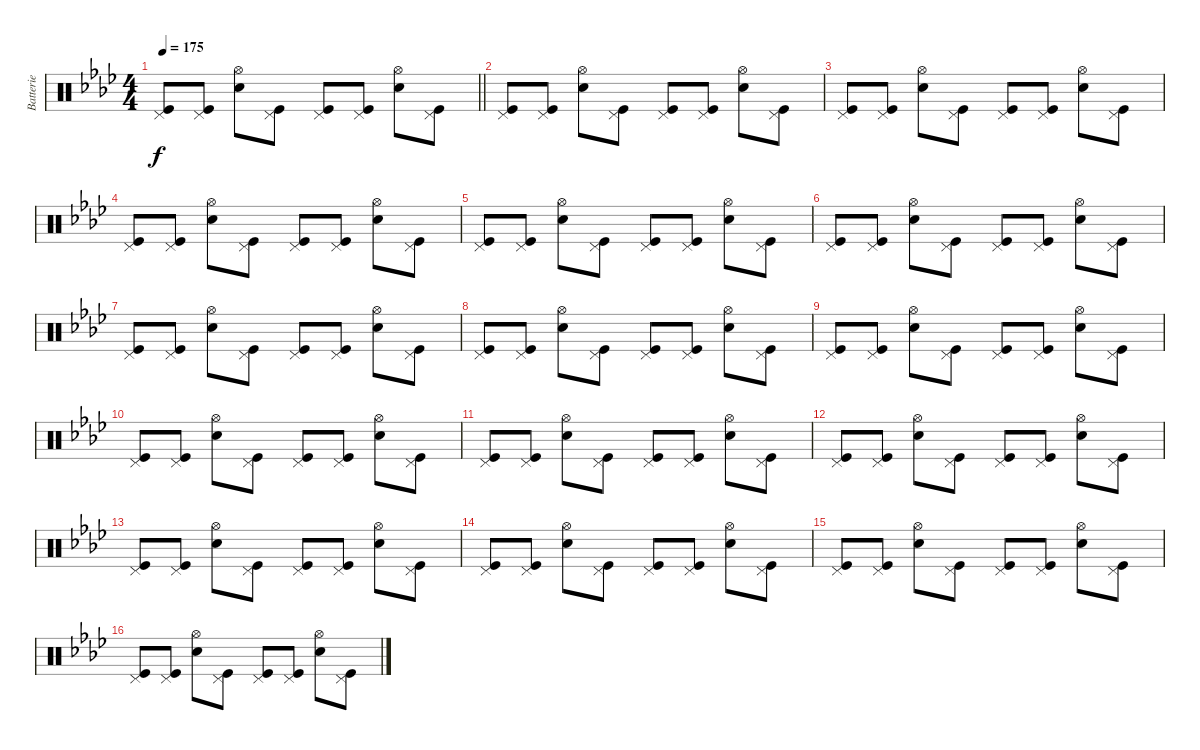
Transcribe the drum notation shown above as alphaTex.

\track ("Batterie" "Batterie") {instrument percussion}
\staff {score}
\articulation defaults
\ts (4 4)
\tempo 175
\clef neutral
\barLineRight lightlight
\ks ab
("Kick (hit)" "Pedal Hi-Hat (hit)").8{dy f} ("Kick (hit)" "Pedal Hi-Hat (hit)").8 ("Snare (hit) 2" "Hi-Hat (open)").8 ("Kick (hit)" "Pedal Hi-Hat (hit)").8 ("Kick (hit)" "Pedal Hi-Hat (hit)").8 ("Kick (hit)" "Pedal Hi-Hat (hit)").8 ("Snare (hit) 2" "Hi-Hat (open)").8 ("Kick (hit)" "Pedal Hi-Hat (hit)").8 |
("Kick (hit)" "Pedal Hi-Hat (hit)").8 ("Kick (hit)" "Pedal Hi-Hat (hit)").8 ("Snare (hit) 2" "Hi-Hat (open)").8 ("Kick (hit)" "Pedal Hi-Hat (hit)").8 ("Kick (hit)" "Pedal Hi-Hat (hit)").8 ("Kick (hit)" "Pedal Hi-Hat (hit)").8 ("Snare (hit) 2" "Hi-Hat (open)").8 ("Kick (hit)" "Pedal Hi-Hat (hit)").8 |
("Kick (hit)" "Pedal Hi-Hat (hit)").8 ("Kick (hit)" "Pedal Hi-Hat (hit)").8 ("Snare (hit) 2" "Hi-Hat (open)").8 ("Kick (hit)" "Pedal Hi-Hat (hit)").8 ("Kick (hit)" "Pedal Hi-Hat (hit)").8 ("Kick (hit)" "Pedal Hi-Hat (hit)").8 ("Snare (hit) 2" "Hi-Hat (open)").8 ("Kick (hit)" "Pedal Hi-Hat (hit)").8 |
("Kick (hit)" "Pedal Hi-Hat (hit)").8 ("Kick (hit)" "Pedal Hi-Hat (hit)").8 ("Snare (hit) 2" "Hi-Hat (open)").8 ("Kick (hit)" "Pedal Hi-Hat (hit)").8 ("Kick (hit)" "Pedal Hi-Hat (hit)").8 ("Kick (hit)" "Pedal Hi-Hat (hit)").8 ("Snare (hit) 2" "Hi-Hat (open)").8 ("Kick (hit)" "Pedal Hi-Hat (hit)").8 |
("Kick (hit)" "Pedal Hi-Hat (hit)").8 ("Kick (hit)" "Pedal Hi-Hat (hit)").8 ("Snare (hit) 2" "Hi-Hat (open)").8 ("Kick (hit)" "Pedal Hi-Hat (hit)").8 ("Kick (hit)" "Pedal Hi-Hat (hit)").8 ("Kick (hit)" "Pedal Hi-Hat (hit)").8 ("Snare (hit) 2" "Hi-Hat (open)").8 ("Kick (hit)" "Pedal Hi-Hat (hit)").8 |
("Kick (hit)" "Pedal Hi-Hat (hit)").8 ("Kick (hit)" "Pedal Hi-Hat (hit)").8 ("Snare (hit) 2" "Hi-Hat (open)").8 ("Kick (hit)" "Pedal Hi-Hat (hit)").8 ("Kick (hit)" "Pedal Hi-Hat (hit)").8 ("Kick (hit)" "Pedal Hi-Hat (hit)").8 ("Snare (hit) 2" "Hi-Hat (open)").8 ("Kick (hit)" "Pedal Hi-Hat (hit)").8 |
("Kick (hit)" "Pedal Hi-Hat (hit)").8 ("Kick (hit)" "Pedal Hi-Hat (hit)").8 ("Snare (hit) 2" "Hi-Hat (open)").8 ("Kick (hit)" "Pedal Hi-Hat (hit)").8 ("Kick (hit)" "Pedal Hi-Hat (hit)").8 ("Kick (hit)" "Pedal Hi-Hat (hit)").8 ("Snare (hit) 2" "Hi-Hat (open)").8 ("Kick (hit)" "Pedal Hi-Hat (hit)").8 |
("Kick (hit)" "Pedal Hi-Hat (hit)").8 ("Kick (hit)" "Pedal Hi-Hat (hit)").8 ("Snare (hit) 2" "Hi-Hat (open)").8 ("Kick (hit)" "Pedal Hi-Hat (hit)").8 ("Kick (hit)" "Pedal Hi-Hat (hit)").8 ("Kick (hit)" "Pedal Hi-Hat (hit)").8 ("Snare (hit) 2" "Hi-Hat (open)").8 ("Kick (hit)" "Pedal Hi-Hat (hit)").8 |
("Kick (hit)" "Pedal Hi-Hat (hit)").8 ("Kick (hit)" "Pedal Hi-Hat (hit)").8 ("Snare (hit) 2" "Hi-Hat (open)").8 ("Kick (hit)" "Pedal Hi-Hat (hit)").8 ("Kick (hit)" "Pedal Hi-Hat (hit)").8 ("Kick (hit)" "Pedal Hi-Hat (hit)").8 ("Snare (hit) 2" "Hi-Hat (open)").8 ("Kick (hit)" "Pedal Hi-Hat (hit)").8 |
("Kick (hit)" "Pedal Hi-Hat (hit)").8 ("Kick (hit)" "Pedal Hi-Hat (hit)").8 ("Snare (hit) 2" "Hi-Hat (open)").8 ("Kick (hit)" "Pedal Hi-Hat (hit)").8 ("Kick (hit)" "Pedal Hi-Hat (hit)").8 ("Kick (hit)" "Pedal Hi-Hat (hit)").8 ("Snare (hit) 2" "Hi-Hat (open)").8 ("Kick (hit)" "Pedal Hi-Hat (hit)").8 |
("Kick (hit)" "Pedal Hi-Hat (hit)").8 ("Kick (hit)" "Pedal Hi-Hat (hit)").8 ("Snare (hit) 2" "Hi-Hat (open)").8 ("Kick (hit)" "Pedal Hi-Hat (hit)").8 ("Kick (hit)" "Pedal Hi-Hat (hit)").8 ("Kick (hit)" "Pedal Hi-Hat (hit)").8 ("Snare (hit) 2" "Hi-Hat (open)").8 ("Kick (hit)" "Pedal Hi-Hat (hit)").8 |
("Kick (hit)" "Pedal Hi-Hat (hit)").8 ("Kick (hit)" "Pedal Hi-Hat (hit)").8 ("Snare (hit) 2" "Hi-Hat (open)").8 ("Kick (hit)" "Pedal Hi-Hat (hit)").8 ("Kick (hit)" "Pedal Hi-Hat (hit)").8 ("Kick (hit)" "Pedal Hi-Hat (hit)").8 ("Snare (hit) 2" "Hi-Hat (open)").8 ("Kick (hit)" "Pedal Hi-Hat (hit)").8 |
("Kick (hit)" "Pedal Hi-Hat (hit)").8 ("Kick (hit)" "Pedal Hi-Hat (hit)").8 ("Snare (hit) 2" "Hi-Hat (open)").8 ("Kick (hit)" "Pedal Hi-Hat (hit)").8 ("Kick (hit)" "Pedal Hi-Hat (hit)").8 ("Kick (hit)" "Pedal Hi-Hat (hit)").8 ("Snare (hit) 2" "Hi-Hat (open)").8 ("Kick (hit)" "Pedal Hi-Hat (hit)").8 |
("Kick (hit)" "Pedal Hi-Hat (hit)").8 ("Kick (hit)" "Pedal Hi-Hat (hit)").8 ("Snare (hit) 2" "Hi-Hat (open)").8 ("Kick (hit)" "Pedal Hi-Hat (hit)").8 ("Kick (hit)" "Pedal Hi-Hat (hit)").8 ("Kick (hit)" "Pedal Hi-Hat (hit)").8 ("Snare (hit) 2" "Hi-Hat (open)").8 ("Kick (hit)" "Pedal Hi-Hat (hit)").8 |
("Kick (hit)" "Pedal Hi-Hat (hit)").8 ("Kick (hit)" "Pedal Hi-Hat (hit)").8 ("Snare (hit) 2" "Hi-Hat (open)").8 ("Kick (hit)" "Pedal Hi-Hat (hit)").8 ("Kick (hit)" "Pedal Hi-Hat (hit)").8 ("Kick (hit)" "Pedal Hi-Hat (hit)").8 ("Snare (hit) 2" "Hi-Hat (open)").8 ("Kick (hit)" "Pedal Hi-Hat (hit)").8 |
("Kick (hit)" "Pedal Hi-Hat (hit)").8 ("Kick (hit)" "Pedal Hi-Hat (hit)").8 ("Snare (hit) 2" "Hi-Hat (open)").8 ("Kick (hit)" "Pedal Hi-Hat (hit)").8 ("Kick (hit)" "Pedal Hi-Hat (hit)").8 ("Kick (hit)" "Pedal Hi-Hat (hit)").8 ("Snare (hit) 2" "Hi-Hat (open)").8 ("Kick (hit)" "Pedal Hi-Hat (hit)").8
